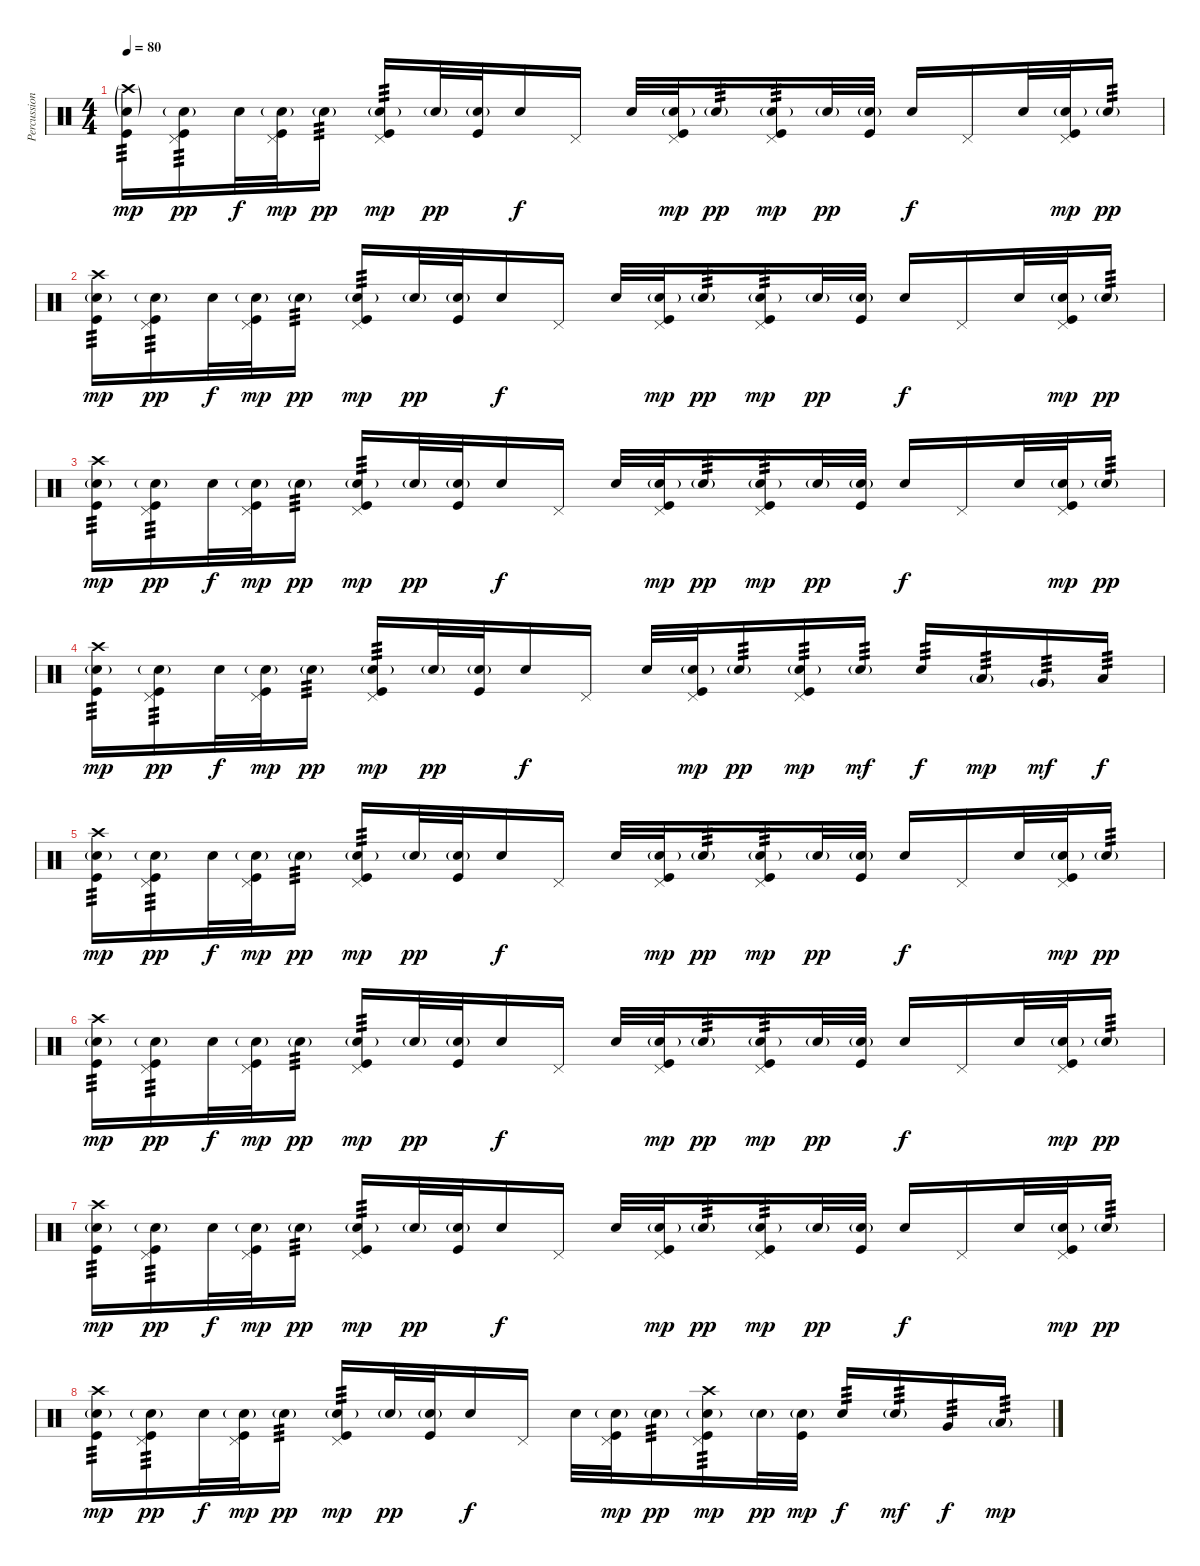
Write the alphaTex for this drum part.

\track ("Percussion" "Percussion") {instrument percussion}
\staff {score}
\articulation defaults
\ts (4 4)
\tempo 80
\clef neutral
\ks c
("Crash high (hit)"{g} "Snare (hit) 2"{g} "Kick (hit)").16{tp 3 dy mp} ("Pedal Hi-Hat (hit)" "Snare (hit) 2"{g} "Kick (hit)").16{tp 3 dy pp} "Snare (hit) 2".32{dy f} ("Pedal Hi-Hat (hit)" "Snare (hit) 2"{g} "Kick (hit)").32{dy mp} "Snare (hit) 2"{g}.16{tp 3 dy pp} ("Pedal Hi-Hat (hit)" "Snare (hit) 2"{g} "Kick (hit)").16{tp 3 dy mp} "Snare (hit) 2"{g}.32{dy pp} ("Snare (hit) 2"{g} "Kick (hit)").32 "Snare (hit) 2".16{dy f} "Pedal Hi-Hat (hit)".16 "Snare (hit) 2".32 ("Pedal Hi-Hat (hit)" "Snare (hit) 2"{g} "Kick (hit)").32{dy mp} "Snare (hit) 2"{g}.16{tp 3 dy pp} ("Pedal Hi-Hat (hit)" "Snare (hit) 2"{g} "Kick (hit)").16{tp 3 dy mp} "Snare (hit) 2"{g}.32{dy pp} ("Snare (hit) 2"{g} "Kick (hit)").32 "Snare (hit) 2".16{dy f} "Pedal Hi-Hat (hit)".16 "Snare (hit) 2".32 ("Pedal Hi-Hat (hit)" "Snare (hit) 2"{g} "Kick (hit)").32{dy mp} "Snare (hit) 2"{g}.16{tp 3 dy pp} |
("Crash high (hit)" "Snare (hit) 2"{g} "Kick (hit)").16{tp 3 dy mp} ("Pedal Hi-Hat (hit)" "Snare (hit) 2"{g} "Kick (hit)").16{tp 3 dy pp} "Snare (hit) 2".32{dy f} ("Pedal Hi-Hat (hit)" "Snare (hit) 2"{g} "Kick (hit)").32{dy mp} "Snare (hit) 2"{g}.16{tp 3 dy pp} ("Pedal Hi-Hat (hit)" "Snare (hit) 2"{g} "Kick (hit)").16{tp 3 dy mp} "Snare (hit) 2"{g}.32{dy pp} ("Snare (hit) 2"{g} "Kick (hit)").32 "Snare (hit) 2".16{dy f} "Pedal Hi-Hat (hit)".16 "Snare (hit) 2".32 ("Pedal Hi-Hat (hit)" "Snare (hit) 2"{g} "Kick (hit)").32{dy mp} "Snare (hit) 2"{g}.16{tp 3 dy pp} ("Pedal Hi-Hat (hit)" "Snare (hit) 2"{g} "Kick (hit)").16{tp 3 dy mp} "Snare (hit) 2"{g}.32{dy pp} ("Snare (hit) 2"{g} "Kick (hit)").32 "Snare (hit) 2".16{dy f} "Pedal Hi-Hat (hit)".16 "Snare (hit) 2".32 ("Pedal Hi-Hat (hit)" "Snare (hit) 2"{g} "Kick (hit)").32{dy mp} "Snare (hit) 2"{g}.16{tp 3 dy pp} |
("Crash high (hit)" "Snare (hit) 2"{g} "Kick (hit)").16{tp 3 dy mp} ("Pedal Hi-Hat (hit)" "Snare (hit) 2"{g} "Kick (hit)").16{tp 3 dy pp} "Snare (hit) 2".32{dy f} ("Pedal Hi-Hat (hit)" "Snare (hit) 2"{g} "Kick (hit)").32{dy mp} "Snare (hit) 2"{g}.16{tp 3 dy pp} ("Pedal Hi-Hat (hit)" "Snare (hit) 2"{g} "Kick (hit)").16{tp 3 dy mp} "Snare (hit) 2"{g}.32{dy pp} ("Snare (hit) 2"{g} "Kick (hit)").32 "Snare (hit) 2".16{dy f} "Pedal Hi-Hat (hit)".16 "Snare (hit) 2".32 ("Pedal Hi-Hat (hit)" "Snare (hit) 2"{g} "Kick (hit)").32{dy mp} "Snare (hit) 2"{g}.16{tp 3 dy pp} ("Pedal Hi-Hat (hit)" "Snare (hit) 2"{g} "Kick (hit)").16{tp 3 dy mp} "Snare (hit) 2"{g}.32{dy pp} ("Snare (hit) 2"{g} "Kick (hit)").32 "Snare (hit) 2".16{dy f} "Pedal Hi-Hat (hit)".16 "Snare (hit) 2".32 ("Pedal Hi-Hat (hit)" "Snare (hit) 2"{g} "Kick (hit)").32{dy mp} "Snare (hit) 2"{g}.16{tp 3 dy pp} |
("Crash high (hit)" "Snare (hit) 2"{g} "Kick (hit)").16{tp 3 dy mp} ("Pedal Hi-Hat (hit)" "Snare (hit) 2"{g} "Kick (hit)").16{tp 3 dy pp} "Snare (hit) 2".32{dy f} ("Pedal Hi-Hat (hit)" "Snare (hit) 2"{g} "Kick (hit)").32{dy mp} "Snare (hit) 2"{g}.16{tp 3 dy pp} ("Pedal Hi-Hat (hit)" "Snare (hit) 2"{g} "Kick (hit)").16{tp 3 dy mp} "Snare (hit) 2"{g}.32{dy pp} ("Snare (hit) 2"{g} "Kick (hit)").32 "Snare (hit) 2".16{dy f} "Pedal Hi-Hat (hit)".16 "Snare (hit) 2".32 ("Pedal Hi-Hat (hit)" "Snare (hit) 2"{g} "Kick (hit)").32{dy mp} "Snare (hit) 2"{g}.16{tp 3 dy pp} ("Pedal Hi-Hat (hit)" "Snare (hit) 2"{g} "Kick (hit)").16{tp 3 dy mp} "Snare (hit) 2"{g}.16{tp 3 dy mf} "Snare (hit) 2".16{tp 3 dy f} "Low Tom (hit)"{g}.16{tp 3 dy mp} "Very Low Tom (hit)"{g}.16{tp 3 dy mf} "Low Floor Tom (hit)".16{tp 3 dy f} |
("Crash high (hit)" "Snare (hit) 2"{g} "Kick (hit)").16{tp 3 dy mp} ("Pedal Hi-Hat (hit)" "Snare (hit) 2"{g} "Kick (hit)").16{tp 3 dy pp} "Snare (hit) 2".32{dy f} ("Pedal Hi-Hat (hit)" "Snare (hit) 2"{g} "Kick (hit)").32{dy mp} "Snare (hit) 2"{g}.16{tp 3 dy pp} ("Pedal Hi-Hat (hit)" "Snare (hit) 2"{g} "Kick (hit)").16{tp 3 dy mp} "Snare (hit) 2"{g}.32{dy pp} ("Snare (hit) 2"{g} "Kick (hit)").32 "Snare (hit) 2".16{dy f} "Pedal Hi-Hat (hit)".16 "Snare (hit) 2".32 ("Pedal Hi-Hat (hit)" "Snare (hit) 2"{g} "Kick (hit)").32{dy mp} "Snare (hit) 2"{g}.16{tp 3 dy pp} ("Pedal Hi-Hat (hit)" "Snare (hit) 2"{g} "Kick (hit)").16{tp 3 dy mp} "Snare (hit) 2"{g}.32{dy pp} ("Snare (hit) 2"{g} "Kick (hit)").32 "Snare (hit) 2".16{dy f} "Pedal Hi-Hat (hit)".16 "Snare (hit) 2".32 ("Pedal Hi-Hat (hit)" "Snare (hit) 2"{g} "Kick (hit)").32{dy mp} "Snare (hit) 2"{g}.16{tp 3 dy pp} |
("Crash high (hit)" "Snare (hit) 2"{g} "Kick (hit)").16{tp 3 dy mp} ("Pedal Hi-Hat (hit)" "Snare (hit) 2"{g} "Kick (hit)").16{tp 3 dy pp} "Snare (hit) 2".32{dy f} ("Pedal Hi-Hat (hit)" "Snare (hit) 2"{g} "Kick (hit)").32{dy mp} "Snare (hit) 2"{g}.16{tp 3 dy pp} ("Pedal Hi-Hat (hit)" "Snare (hit) 2"{g} "Kick (hit)").16{tp 3 dy mp} "Snare (hit) 2"{g}.32{dy pp} ("Snare (hit) 2"{g} "Kick (hit)").32 "Snare (hit) 2".16{dy f} "Pedal Hi-Hat (hit)".16 "Snare (hit) 2".32 ("Pedal Hi-Hat (hit)" "Snare (hit) 2"{g} "Kick (hit)").32{dy mp} "Snare (hit) 2"{g}.16{tp 3 dy pp} ("Pedal Hi-Hat (hit)" "Snare (hit) 2"{g} "Kick (hit)").16{tp 3 dy mp} "Snare (hit) 2"{g}.32{dy pp} ("Snare (hit) 2"{g} "Kick (hit)").32 "Snare (hit) 2".16{dy f} "Pedal Hi-Hat (hit)".16 "Snare (hit) 2".32 ("Pedal Hi-Hat (hit)" "Snare (hit) 2"{g} "Kick (hit)").32{dy mp} "Snare (hit) 2"{g}.16{tp 3 dy pp} |
("Crash high (hit)" "Snare (hit) 2"{g} "Kick (hit)").16{tp 3 dy mp} ("Pedal Hi-Hat (hit)" "Snare (hit) 2"{g} "Kick (hit)").16{tp 3 dy pp} "Snare (hit) 2".32{dy f} ("Pedal Hi-Hat (hit)" "Snare (hit) 2"{g} "Kick (hit)").32{dy mp} "Snare (hit) 2"{g}.16{tp 3 dy pp} ("Pedal Hi-Hat (hit)" "Snare (hit) 2"{g} "Kick (hit)").16{tp 3 dy mp} "Snare (hit) 2"{g}.32{dy pp} ("Snare (hit) 2"{g} "Kick (hit)").32 "Snare (hit) 2".16{dy f} "Pedal Hi-Hat (hit)".16 "Snare (hit) 2".32 ("Pedal Hi-Hat (hit)" "Snare (hit) 2"{g} "Kick (hit)").32{dy mp} "Snare (hit) 2"{g}.16{tp 3 dy pp} ("Pedal Hi-Hat (hit)" "Snare (hit) 2"{g} "Kick (hit)").16{tp 3 dy mp} "Snare (hit) 2"{g}.32{dy pp} ("Snare (hit) 2"{g} "Kick (hit)").32 "Snare (hit) 2".16{dy f} "Pedal Hi-Hat (hit)".16 "Snare (hit) 2".32 ("Pedal Hi-Hat (hit)" "Snare (hit) 2"{g} "Kick (hit)").32{dy mp} "Snare (hit) 2"{g}.16{tp 3 dy pp} |
("Crash high (hit)" "Snare (hit) 2"{g} "Kick (hit)").16{tp 3 dy mp} ("Pedal Hi-Hat (hit)" "Snare (hit) 2"{g} "Kick (hit)").16{tp 3 dy pp} "Snare (hit) 2".32{dy f} ("Pedal Hi-Hat (hit)" "Snare (hit) 2"{g} "Kick (hit)").32{dy mp} "Snare (hit) 2"{g}.16{tp 3 dy pp} ("Pedal Hi-Hat (hit)" "Snare (hit) 2"{g} "Kick (hit)").16{tp 3 dy mp} "Snare (hit) 2"{g}.32{dy pp} ("Snare (hit) 2"{g} "Kick (hit)").32 "Snare (hit) 2".16{dy f} "Pedal Hi-Hat (hit)".16 "Snare (hit) 2".32 ("Pedal Hi-Hat (hit)" "Snare (hit) 2"{g} "Kick (hit)").32{dy mp} "Snare (hit) 2"{g}.16{tp 3 dy pp} ("Crash high (hit)" "Pedal Hi-Hat (hit)" "Snare (hit) 2"{g} "Kick (hit)").16{tp 3 dy mp} "Snare (hit) 2"{g}.32{dy pp} ("Snare (hit) 2"{g} "Kick (hit)").32{dy mp} "Snare (hit) 2".16{tp 3 dy f} "Snare (hit) 2"{g}.16{tp 3 dy mf} "Very Low Tom (hit)".16{tp 3 dy f} "Low Floor Tom (hit)"{g}.16{tp 3 dy mp}
